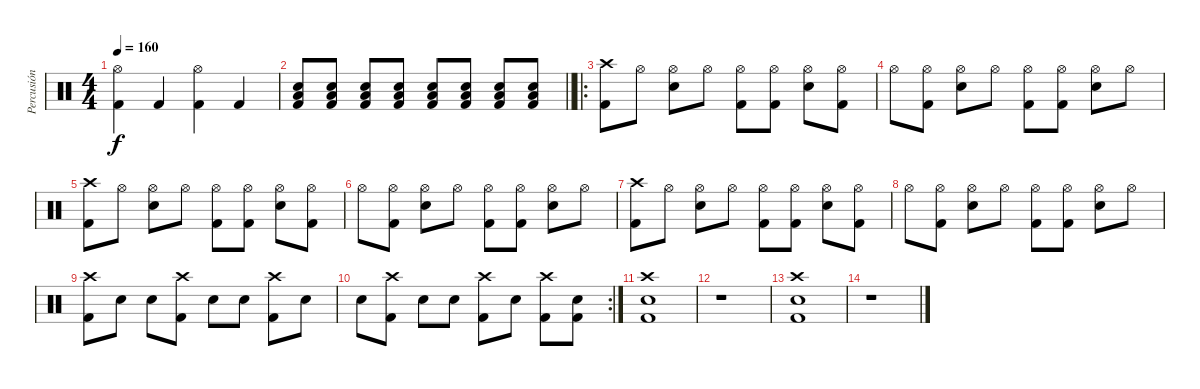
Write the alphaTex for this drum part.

\track ("Percusión (Nevi)" "Percusión ") {instrument percussion}
\staff {score}
\articulation defaults
\ts (4 4)
\tempo 160
\clef neutral
\ks c
("Kick (hit) 2" "Hi-Hat (open)").4{dy f} "Kick (hit) 2".4 ("Kick (hit) 2" "Hi-Hat (open)").4 "Kick (hit) 2".4 |
\barLineRight lightlight
("Kick (hit) 2" "Low Tom (hit)" "Snare (hit) 2").8 ("Kick (hit) 2" "Low Tom (hit)" "Snare (hit) 2").8 ("Kick (hit) 2" "Low Tom (hit)" "Snare (hit) 2").8 ("Kick (hit) 2" "Low Tom (hit)" "Snare (hit) 2").8 ("Kick (hit) 2" "Low Tom (hit)" "Snare (hit) 2").8 ("Kick (hit) 2" "Low Tom (hit)" "Snare (hit) 2").8 ("Kick (hit) 2" "Low Tom (hit)" "Snare (hit) 2").8 ("Kick (hit) 2" "Low Tom (hit)" "Snare (hit) 2").8 |
\ro
("Kick (hit) 2" "Crash high (hit)").8 "Hi-Hat (open)".8 ("Hi-Hat (open)" "Snare (hit) 2").8 "Hi-Hat (open)".8 ("Kick (hit) 2" "Hi-Hat (open)").8 ("Kick (hit) 2" "Hi-Hat (open)").8 ("Hi-Hat (open)" "Snare (hit) 2").8 ("Kick (hit) 2" "Hi-Hat (open)").8 |
"Hi-Hat (open)".8 ("Kick (hit) 2" "Hi-Hat (open)").8 ("Hi-Hat (open)" "Snare (hit) 2").8 "Hi-Hat (open)".8 ("Kick (hit) 2" "Hi-Hat (open)").8 ("Kick (hit) 2" "Hi-Hat (open)").8 ("Hi-Hat (open)" "Snare (hit) 2").8 "Hi-Hat (open)".8 |
("Kick (hit) 2" "Crash high (hit)").8 "Hi-Hat (open)".8 ("Hi-Hat (open)" "Snare (hit) 2").8 "Hi-Hat (open)".8 ("Kick (hit) 2" "Hi-Hat (open)").8 ("Kick (hit) 2" "Hi-Hat (open)").8 ("Hi-Hat (open)" "Snare (hit) 2").8 ("Kick (hit) 2" "Hi-Hat (open)").8 |
"Hi-Hat (open)".8 ("Kick (hit) 2" "Hi-Hat (open)").8 ("Hi-Hat (open)" "Snare (hit) 2").8 "Hi-Hat (open)".8 ("Kick (hit) 2" "Hi-Hat (open)").8 ("Kick (hit) 2" "Hi-Hat (open)").8 ("Hi-Hat (open)" "Snare (hit) 2").8 "Hi-Hat (open)".8 |
("Kick (hit) 2" "Crash high (hit)").8 "Hi-Hat (open)".8 ("Hi-Hat (open)" "Snare (hit) 2").8 "Hi-Hat (open)".8 ("Kick (hit) 2" "Hi-Hat (open)").8 ("Kick (hit) 2" "Hi-Hat (open)").8 ("Hi-Hat (open)" "Snare (hit) 2").8 ("Kick (hit) 2" "Hi-Hat (open)").8 |
"Hi-Hat (open)".8 ("Kick (hit) 2" "Hi-Hat (open)").8 ("Hi-Hat (open)" "Snare (hit) 2").8 "Hi-Hat (open)".8 ("Kick (hit) 2" "Hi-Hat (open)").8 ("Kick (hit) 2" "Hi-Hat (open)").8 ("Hi-Hat (open)" "Snare (hit) 2").8 "Hi-Hat (open)".8 |
("Kick (hit) 2" "Crash high (hit)").8 "Snare (hit) 2".8 "Snare (hit) 2".8 ("Kick (hit) 2" "Crash high (hit)").8 "Snare (hit) 2".8 "Snare (hit) 2".8 ("Kick (hit) 2" "Crash high (hit)").8 "Snare (hit) 2".8 |
\rc 2 "Snare (hit) 2".8
("Kick (hit) 2" "Crash high (hit)").8 "Snare (hit) 2".8 "Snare (hit) 2".8 ("Kick (hit) 2" "Crash high (hit)").8 "Snare (hit) 2".8 ("Kick (hit) 2" "Crash high (hit)").8 ("Kick (hit) 2" "Snare (hit) 2").8 |
("Kick (hit) 2" "Snare (hit) 2" "Crash high (hit)").1 |
r.1 |
("Kick (hit) 2" "Snare (hit) 2" "Crash high (hit)").1 |
r.1
